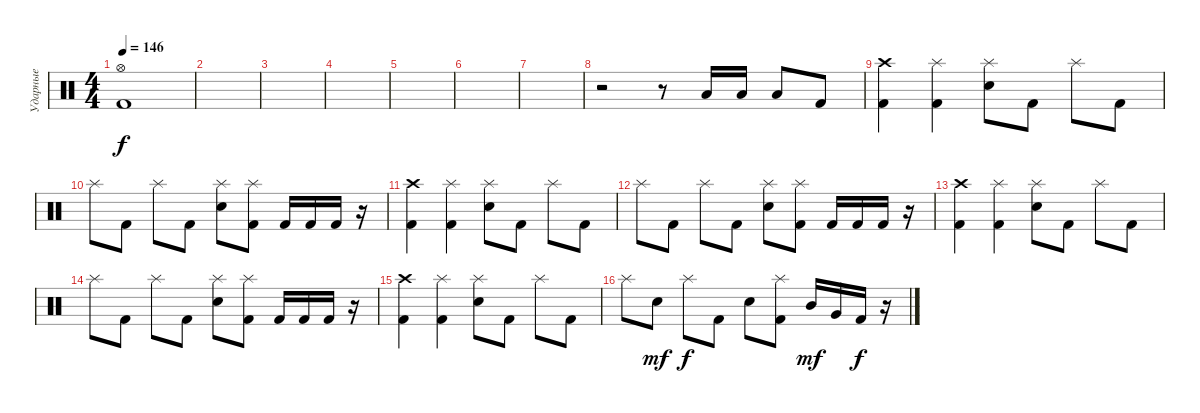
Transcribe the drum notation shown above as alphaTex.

\track ("Ударные" "Ударные") {instrument percussion}
\staff {score}
\articulation defaults
\ts (4 4)
\tempo 146
\clef neutral
\ks c
("Hi-Hat (open)" "Kick (hit) 2").1{dy f} |
|
|
|
|
|
|
r.2 r.8 "Low Tom (hit)".16 "Low Tom (hit)".16 "Low Tom (hit)".8 "Kick (hit) 2".8 |
("Crash high (hit)" "Kick (hit) 2").4 ("Splash (hit)" "Kick (hit) 2").4 ("Splash (hit)" "Snare (hit) 2").8 "Kick (hit) 2".8 "Splash (hit)".8 "Kick (hit) 2".8 |
"Splash (hit)".8 "Kick (hit) 2".8 "Splash (hit)".8 "Kick (hit) 2".8 ("Splash (hit)" "Snare (hit) 2").8 ("Splash (hit)" "Kick (hit) 2").8 "Kick (hit) 2".16 "Kick (hit) 2".16 "Kick (hit) 2".16 r.16 |
("Crash high (hit)" "Kick (hit) 2").4 ("Splash (hit)" "Kick (hit) 2").4 ("Splash (hit)" "Snare (hit) 2").8 "Kick (hit) 2".8 "Splash (hit)".8 "Kick (hit) 2".8 |
"Splash (hit)".8 "Kick (hit) 2".8 "Splash (hit)".8 "Kick (hit) 2".8 ("Splash (hit)" "Snare (hit) 2").8 ("Splash (hit)" "Kick (hit) 2").8 "Kick (hit) 2".16 "Kick (hit) 2".16 "Kick (hit) 2".16 r.16 |
("Crash high (hit)" "Kick (hit) 2").4 ("Splash (hit)" "Kick (hit) 2").4 ("Splash (hit)" "Snare (hit) 2").8 "Kick (hit) 2".8 "Splash (hit)".8 "Kick (hit) 2".8 |
"Splash (hit)".8 "Kick (hit) 2".8 "Splash (hit)".8 "Kick (hit) 2".8 ("Splash (hit)" "Snare (hit) 2").8 ("Splash (hit)" "Kick (hit) 2").8 "Kick (hit) 2".16 "Kick (hit) 2".16 "Kick (hit) 2".16 r.16 |
("Crash high (hit)" "Kick (hit) 2").4 ("Splash (hit)" "Kick (hit) 2").4 ("Splash (hit)" "Snare (hit) 2").8 "Kick (hit) 2".8 "Splash (hit)".8 "Kick (hit) 2".8 |
"Splash (hit)".8 "Snare (hit) 2".8{dy mf} "Splash (hit)".8{dy f} "Kick (hit) 2".8 "Snare (hit) 2".8 ("Splash (hit)" "Kick (hit) 2").8 "Mid Tom (hit)".16{dy mf} "Very Low Tom (hit)".16 "Kick (hit) 2".16{dy f} r.16
